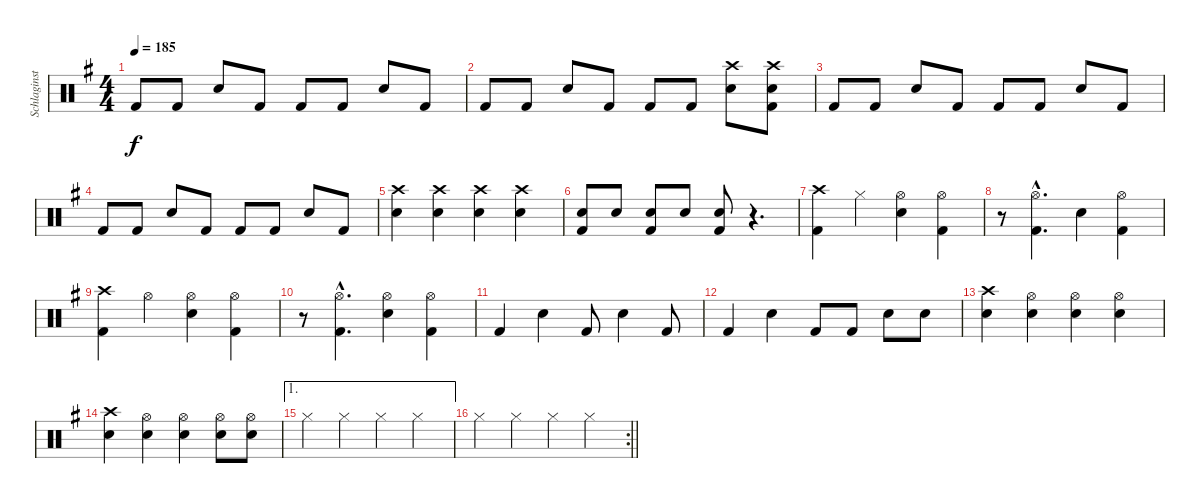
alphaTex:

\track ("Schlaginstrumente - Auswahl" "Schlaginst") {instrument percussion}
\staff {score}
\articulation defaults
\ts (4 4)
\tempo 185
\clef neutral
\ks eminor "Kick (hit) 2".8{dy f} "Kick (hit) 2".8 "Snare (hit) 2".8 "Kick (hit) 2".8 "Kick (hit) 2".8 "Kick (hit) 2".8 "Snare (hit) 2".8 "Kick (hit) 2".8
|
"Kick (hit) 2".8 "Kick (hit) 2".8 "Snare (hit) 2".8 "Kick (hit) 2".8 "Kick (hit) 2".8 "Kick (hit) 2".8 ("Crash high (hit)" "Snare (hit) 2").8 ("Crash high (hit)" "Snare (hit) 2" "Kick (hit) 2").8 |
"Kick (hit) 2".8 "Kick (hit) 2".8 "Snare (hit) 2".8 "Kick (hit) 2".8 "Kick (hit) 2".8 "Kick (hit) 2".8 "Snare (hit) 2".8 "Kick (hit) 2".8 |
"Kick (hit) 2".8 "Kick (hit) 2".8 "Snare (hit) 2".8 "Kick (hit) 2".8 "Kick (hit) 2".8 "Kick (hit) 2".8 "Snare (hit) 2".8 "Kick (hit) 2".8 |
("Crash high (hit)" "Snare (hit) 2").4 ("Crash high (hit)" "Snare (hit) 2").4 ("Crash high (hit)" "Snare (hit) 2").4 ("Crash high (hit)" "Snare (hit) 2").4 |
("Snare (hit) 2" "Kick (hit) 2").8 "Snare (hit) 2".8 ("Snare (hit) 2" "Kick (hit) 2").8 "Snare (hit) 2".8 ("Snare (hit) 2" "Kick (hit) 2").8 r.4{d} |
("Crash high (hit)" "Kick (hit) 2").4 "Hi-Hat (closed)".4 ("Hi-Hat (open)" "Snare (hit) 2").4 ("Hi-Hat (open)" "Kick (hit) 2").4 |
r.8 ("Hi-Hat (open)"{hac} "Kick (hit) 2"{hac}).4{d} "Snare (hit) 2".4 ("Hi-Hat (open)" "Kick (hit) 2").4 |
("Crash high (hit)" "Kick (hit) 2").4 "Hi-Hat (open)".4 ("Hi-Hat (open)" "Snare (hit) 2").4 ("Hi-Hat (open)" "Kick (hit) 2").4 |
r.8 ("Hi-Hat (open)"{hac} "Kick (hit) 2"{hac}).4{d} ("Hi-Hat (open)" "Snare (hit) 2").4 ("Hi-Hat (open)" "Kick (hit) 2").4 |
"Kick (hit) 2".4 "Snare (hit) 2".4 "Kick (hit) 2".8 "Snare (hit) 2".4 "Kick (hit) 2".8 |
"Kick (hit) 2".4 "Snare (hit) 2".4 "Kick (hit) 2".8 "Kick (hit) 2".8 "Snare (hit) 2".8 "Snare (hit) 2".8 |
("Crash high (hit)" "Snare (hit) 2").4 ("Hi-Hat (open)" "Snare (hit) 2").4 ("Hi-Hat (open)" "Snare (hit) 2").4 ("Hi-Hat (open)" "Snare (hit) 2").4 |
("Crash high (hit)" "Snare (hit) 2").4 ("Hi-Hat (open)" "Snare (hit) 2").4 ("Hi-Hat (open)" "Snare (hit) 2").4 ("Hi-Hat (open)" "Snare (hit) 2").8 ("Hi-Hat (open)" "Snare (hit) 2").8 |
\ae 1 "Hi-Hat (closed)".4 "Hi-Hat (closed)".4 "Hi-Hat (closed)".4 "Hi-Hat (closed)".4
|
\rc 2
\barLineRight lightlight "Hi-Hat (closed)".4 "Hi-Hat (closed)".4 "Hi-Hat (closed)".4 "Hi-Hat (closed)".4
